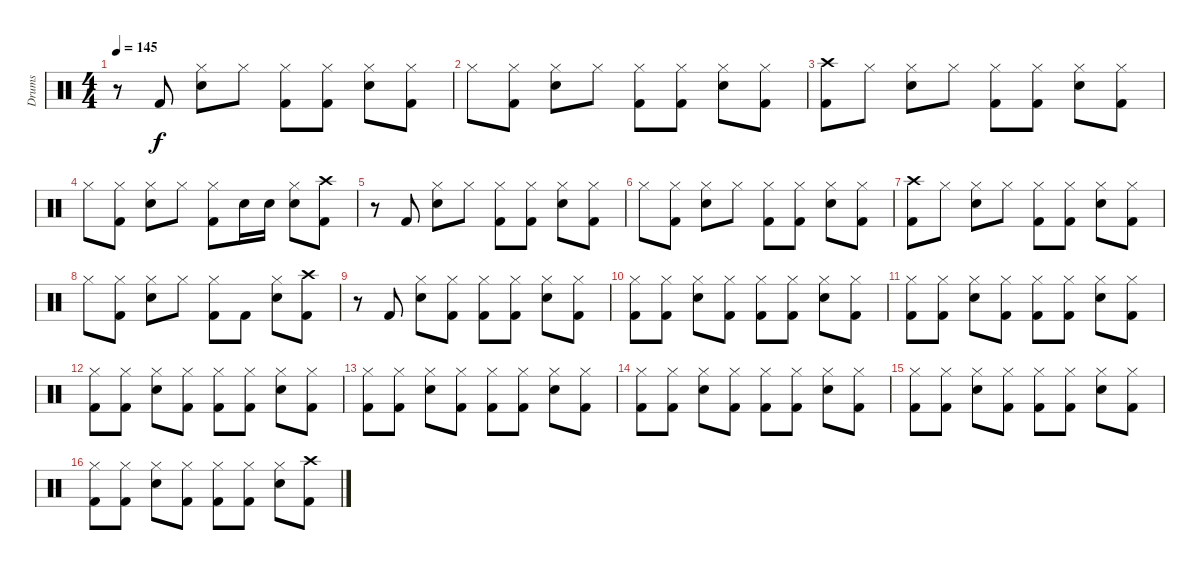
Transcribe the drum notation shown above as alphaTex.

\track ("Drums" "Drums") {instrument percussion}
\staff {score}
\articulation defaults
\ts (4 4)
\tempo 145
\clef neutral
\ks c
r.8{dy f} "Kick (hit) 2".8 ("Hi-Hat (closed)" "Snare (hit) 2").8 "Hi-Hat (closed)".8 ("Hi-Hat (closed)" "Kick (hit) 2").8 ("Hi-Hat (closed)" "Kick (hit) 2").8 ("Hi-Hat (closed)" "Snare (hit) 2").8 ("Hi-Hat (closed)" "Kick (hit) 2").8 |
"Hi-Hat (closed)".8 ("Hi-Hat (closed)" "Kick (hit) 2").8 ("Hi-Hat (closed)" "Snare (hit) 2").8 "Hi-Hat (closed)".8 ("Hi-Hat (closed)" "Kick (hit) 2").8 ("Hi-Hat (closed)" "Kick (hit) 2").8 ("Hi-Hat (closed)" "Snare (hit) 2").8 ("Hi-Hat (closed)" "Kick (hit) 2").8 |
("Crash high (hit)" "Kick (hit) 2").8 "Hi-Hat (closed)".8 ("Hi-Hat (closed)" "Snare (hit) 2").8 "Hi-Hat (closed)".8 ("Hi-Hat (closed)" "Kick (hit) 2").8 ("Hi-Hat (closed)" "Kick (hit) 2").8 ("Hi-Hat (closed)" "Snare (hit) 2").8 ("Hi-Hat (closed)" "Kick (hit) 2").8 |
"Hi-Hat (closed)".8 ("Hi-Hat (closed)" "Kick (hit) 2").8 ("Hi-Hat (closed)" "Snare (hit) 2").8 "Hi-Hat (closed)".8 ("Hi-Hat (closed)" "Kick (hit) 2").8 "Snare (hit) 2".16 "Snare (hit) 2".16 ("Hi-Hat (closed)" "Snare (hit) 2").8 ("Crash high (hit)" "Kick (hit) 2").8 |
r.8 "Kick (hit) 2".8 ("Hi-Hat (closed)" "Snare (hit) 2").8 "Hi-Hat (closed)".8 ("Hi-Hat (closed)" "Kick (hit) 2").8 ("Hi-Hat (closed)" "Kick (hit) 2").8 ("Hi-Hat (closed)" "Snare (hit) 2").8 ("Hi-Hat (closed)" "Kick (hit) 2").8 |
"Hi-Hat (closed)".8 ("Hi-Hat (closed)" "Kick (hit) 2").8 ("Hi-Hat (closed)" "Snare (hit) 2").8 "Hi-Hat (closed)".8 ("Hi-Hat (closed)" "Kick (hit) 2").8 ("Hi-Hat (closed)" "Kick (hit) 2").8 ("Hi-Hat (closed)" "Snare (hit) 2").8 ("Hi-Hat (closed)" "Kick (hit) 2").8 |
("Crash high (hit)" "Kick (hit) 2").8 "Hi-Hat (closed)".8 ("Hi-Hat (closed)" "Snare (hit) 2").8 "Hi-Hat (closed)".8 ("Hi-Hat (closed)" "Kick (hit) 2").8 ("Hi-Hat (closed)" "Kick (hit) 2").8 ("Hi-Hat (closed)" "Snare (hit) 2").8 ("Hi-Hat (closed)" "Kick (hit) 2").8 |
"Hi-Hat (closed)".8 ("Hi-Hat (closed)" "Kick (hit) 2").8 ("Hi-Hat (closed)" "Snare (hit) 2").8 "Hi-Hat (closed)".8 ("Hi-Hat (closed)" "Kick (hit) 2").8 "Kick (hit) 2".8 ("Hi-Hat (closed)" "Snare (hit) 2").8 ("Crash high (hit)" "Kick (hit) 2").8 |
r.8 "Kick (hit) 2".8 ("Hi-Hat (closed)" "Snare (hit) 2").8 ("Hi-Hat (closed)" "Kick (hit) 2").8 ("Hi-Hat (closed)" "Kick (hit) 2").8 ("Hi-Hat (closed)" "Kick (hit) 2").8 ("Hi-Hat (closed)" "Snare (hit) 2").8 ("Hi-Hat (closed)" "Kick (hit) 2").8 |
("Hi-Hat (closed)" "Kick (hit) 2").8 ("Hi-Hat (closed)" "Kick (hit) 2").8 ("Hi-Hat (closed)" "Snare (hit) 2").8 ("Hi-Hat (closed)" "Kick (hit) 2").8 ("Hi-Hat (closed)" "Kick (hit) 2").8 ("Hi-Hat (closed)" "Kick (hit) 2").8 ("Hi-Hat (closed)" "Snare (hit) 2").8 ("Hi-Hat (closed)" "Kick (hit) 2").8 |
("Hi-Hat (closed)" "Kick (hit) 2").8 ("Hi-Hat (closed)" "Kick (hit) 2").8 ("Hi-Hat (closed)" "Snare (hit) 2").8 ("Hi-Hat (closed)" "Kick (hit) 2").8 ("Hi-Hat (closed)" "Kick (hit) 2").8 ("Hi-Hat (closed)" "Kick (hit) 2").8 ("Hi-Hat (closed)" "Snare (hit) 2").8 ("Hi-Hat (closed)" "Kick (hit) 2").8 |
("Hi-Hat (closed)" "Kick (hit) 2").8 ("Hi-Hat (closed)" "Kick (hit) 2").8 ("Hi-Hat (closed)" "Snare (hit) 2").8 ("Hi-Hat (closed)" "Kick (hit) 2").8 ("Hi-Hat (closed)" "Kick (hit) 2").8 ("Hi-Hat (closed)" "Kick (hit) 2").8 ("Hi-Hat (closed)" "Snare (hit) 2").8 ("Hi-Hat (closed)" "Kick (hit) 2").8 |
("Hi-Hat (closed)" "Kick (hit) 2").8 ("Hi-Hat (closed)" "Kick (hit) 2").8 ("Hi-Hat (closed)" "Snare (hit) 2").8 ("Hi-Hat (closed)" "Kick (hit) 2").8 ("Hi-Hat (closed)" "Kick (hit) 2").8 ("Hi-Hat (closed)" "Kick (hit) 2").8 ("Hi-Hat (closed)" "Snare (hit) 2").8 ("Hi-Hat (closed)" "Kick (hit) 2").8 |
("Hi-Hat (closed)" "Kick (hit) 2").8 ("Hi-Hat (closed)" "Kick (hit) 2").8 ("Hi-Hat (closed)" "Snare (hit) 2").8 ("Hi-Hat (closed)" "Kick (hit) 2").8 ("Hi-Hat (closed)" "Kick (hit) 2").8 ("Hi-Hat (closed)" "Kick (hit) 2").8 ("Hi-Hat (closed)" "Snare (hit) 2").8 ("Hi-Hat (closed)" "Kick (hit) 2").8 |
("Hi-Hat (closed)" "Kick (hit) 2").8 ("Hi-Hat (closed)" "Kick (hit) 2").8 ("Hi-Hat (closed)" "Snare (hit) 2").8 ("Hi-Hat (closed)" "Kick (hit) 2").8 ("Hi-Hat (closed)" "Kick (hit) 2").8 ("Hi-Hat (closed)" "Kick (hit) 2").8 ("Hi-Hat (closed)" "Snare (hit) 2").8 ("Hi-Hat (closed)" "Kick (hit) 2").8 |
("Hi-Hat (closed)" "Kick (hit) 2").8 ("Hi-Hat (closed)" "Kick (hit) 2").8 ("Hi-Hat (closed)" "Snare (hit) 2").8 ("Hi-Hat (closed)" "Kick (hit) 2").8 ("Hi-Hat (closed)" "Kick (hit) 2").8 ("Hi-Hat (closed)" "Kick (hit) 2").8 ("Hi-Hat (closed)" "Snare (hit) 2").8 ("Crash high (hit)" "Kick (hit) 2").8
